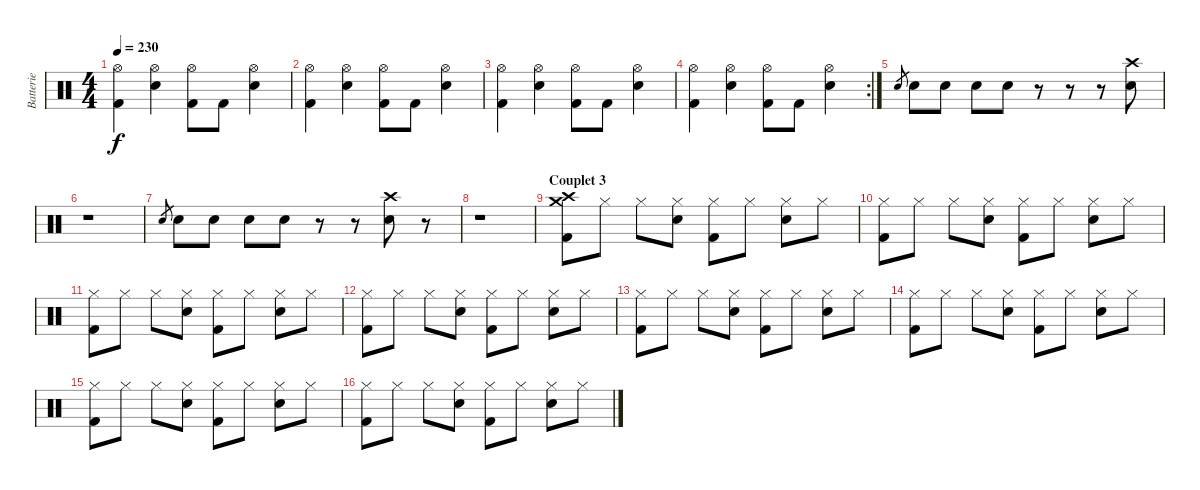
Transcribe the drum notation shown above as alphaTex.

\track ("Batterie" "Batterie") {instrument percussion}
\staff {score}
\articulation defaults
\ts (4 4)
\tempo 230
\clef neutral
\ks c
("Hi-Hat (open)" "Kick (hit) 2").4{dy f} ("Hi-Hat (open)" "Electric Snare (hit)").4 ("Hi-Hat (open)" "Kick (hit) 2").8 "Kick (hit) 2".8 ("Hi-Hat (open)" "Electric Snare (hit)").4 |
("Hi-Hat (open)" "Kick (hit) 2").4 ("Hi-Hat (open)" "Electric Snare (hit)").4 ("Hi-Hat (open)" "Kick (hit) 2").8 "Kick (hit) 2".8 ("Hi-Hat (open)" "Electric Snare (hit)").4 |
("Hi-Hat (open)" "Kick (hit) 2").4 ("Hi-Hat (open)" "Electric Snare (hit)").4 ("Hi-Hat (open)" "Kick (hit) 2").8 "Kick (hit) 2".8 ("Hi-Hat (open)" "Electric Snare (hit)").4 |
\rc 2
("Hi-Hat (open)" "Kick (hit) 2").4 ("Hi-Hat (open)" "Electric Snare (hit)").4 ("Hi-Hat (open)" "Kick (hit) 2").8 "Kick (hit) 2".8 ("Hi-Hat (open)" "Electric Snare (hit)").4 |
"Electric Snare (hit)".8{gr} "Electric Snare (hit)".8 "Electric Snare (hit)".8 "Electric Snare (hit)".8 "Electric Snare (hit)".8 r.8 r.8 r.8 ("Crash high (hit)" "Electric Snare (hit)").8 |
r.1 |
"Electric Snare (hit)".8{gr} "Electric Snare (hit)".8 "Electric Snare (hit)".8 "Electric Snare (hit)".8 "Electric Snare (hit)".8 r.8 r.8 ("Crash high (hit)" "Electric Snare (hit)").8 r.8 |
r.1 |
\section ("" "Couplet 3")
("Crash high (hit)" "Crash medium (hit)" "Kick (hit) 2").8 "Hi-Hat (closed)".8 "Hi-Hat (closed)".8 ("Hi-Hat (closed)" "Electric Snare (hit)").8 ("Hi-Hat (closed)" "Kick (hit) 2").8 "Hi-Hat (closed)".8 ("Hi-Hat (closed)" "Electric Snare (hit)").8 "Hi-Hat (closed)".8 |
("Hi-Hat (closed)" "Kick (hit) 2").8 "Hi-Hat (closed)".8 "Hi-Hat (closed)".8 ("Hi-Hat (closed)" "Electric Snare (hit)").8 ("Hi-Hat (closed)" "Kick (hit) 2").8 "Hi-Hat (closed)".8 ("Hi-Hat (closed)" "Electric Snare (hit)").8 "Hi-Hat (closed)".8 |
("Hi-Hat (closed)" "Kick (hit) 2").8 "Hi-Hat (closed)".8 "Hi-Hat (closed)".8 ("Hi-Hat (closed)" "Electric Snare (hit)").8 ("Hi-Hat (closed)" "Kick (hit) 2").8 "Hi-Hat (closed)".8 ("Hi-Hat (closed)" "Electric Snare (hit)").8 "Hi-Hat (closed)".8 |
("Hi-Hat (closed)" "Kick (hit) 2").8 "Hi-Hat (closed)".8 "Hi-Hat (closed)".8 ("Hi-Hat (closed)" "Electric Snare (hit)").8 ("Hi-Hat (closed)" "Kick (hit) 2").8 "Hi-Hat (closed)".8 ("Hi-Hat (closed)" "Electric Snare (hit)").8 "Hi-Hat (closed)".8 |
("Hi-Hat (closed)" "Kick (hit) 2").8 "Hi-Hat (closed)".8 "Hi-Hat (closed)".8 ("Hi-Hat (closed)" "Electric Snare (hit)").8 ("Hi-Hat (closed)" "Kick (hit) 2").8 "Hi-Hat (closed)".8 ("Hi-Hat (closed)" "Electric Snare (hit)").8 "Hi-Hat (closed)".8 |
("Hi-Hat (closed)" "Kick (hit) 2").8 "Hi-Hat (closed)".8 "Hi-Hat (closed)".8 ("Hi-Hat (closed)" "Electric Snare (hit)").8 ("Hi-Hat (closed)" "Kick (hit) 2").8 "Hi-Hat (closed)".8 ("Hi-Hat (closed)" "Electric Snare (hit)").8 "Hi-Hat (closed)".8 |
("Hi-Hat (closed)" "Kick (hit) 2").8 "Hi-Hat (closed)".8 "Hi-Hat (closed)".8 ("Hi-Hat (closed)" "Electric Snare (hit)").8 ("Hi-Hat (closed)" "Kick (hit) 2").8 "Hi-Hat (closed)".8 ("Hi-Hat (closed)" "Electric Snare (hit)").8 "Hi-Hat (closed)".8 |
("Hi-Hat (closed)" "Kick (hit) 2").8 "Hi-Hat (closed)".8 "Hi-Hat (closed)".8 ("Hi-Hat (closed)" "Electric Snare (hit)").8 ("Hi-Hat (closed)" "Kick (hit) 2").8 "Hi-Hat (closed)".8 ("Hi-Hat (closed)" "Electric Snare (hit)").8 "Hi-Hat (closed)".8
